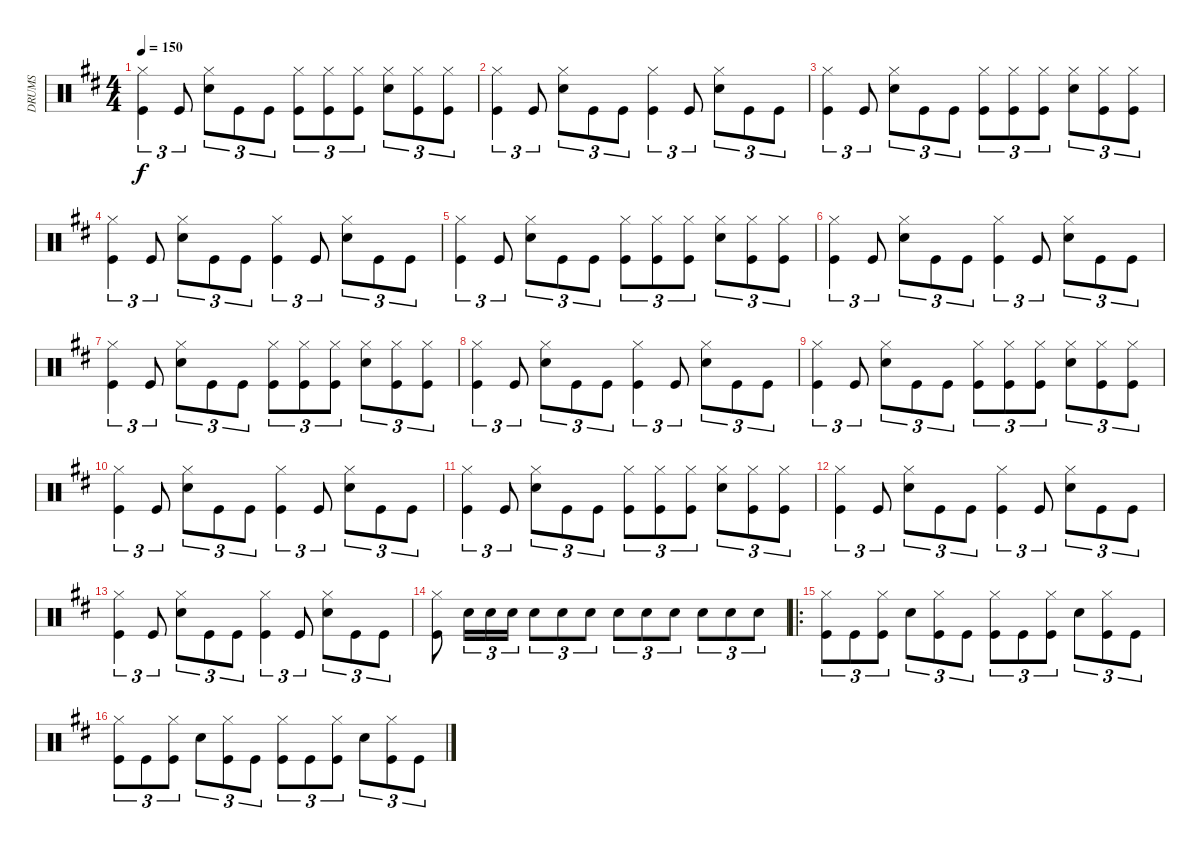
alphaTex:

\track ("DRUMS" "DRUMS") {instrument percussion}
\staff {score}
\articulation defaults
\ts (4 4)
\tempo 150
\clef neutral
\ks d
("Hi-Hat (closed)" "Kick (hit)").4{tu (3 2) dy f} "Kick (hit)".8{tu (3 2)} ("Hi-Hat (closed)" "Snare (hit) 2").8{tu (3 2)} "Kick (hit)".8{tu (3 2)} "Kick (hit)".8{tu (3 2)} ("Hi-Hat (closed)" "Kick (hit)").8{tu (3 2)} ("Hi-Hat (closed)" "Kick (hit)").8{tu (3 2)} ("Hi-Hat (closed)" "Kick (hit)").8{tu (3 2)} ("Hi-Hat (closed)" "Snare (hit) 2").8{tu (3 2)} ("Hi-Hat (closed)" "Kick (hit)").8{tu (3 2)} ("Hi-Hat (closed)" "Kick (hit)").8{tu (3 2)} |
("Hi-Hat (closed)" "Kick (hit)").4{tu (3 2)} "Kick (hit)".8{tu (3 2)} ("Hi-Hat (closed)" "Snare (hit) 2").8{tu (3 2)} "Kick (hit)".8{tu (3 2)} "Kick (hit)".8{tu (3 2)} ("Hi-Hat (closed)" "Kick (hit)").4{tu (3 2)} "Kick (hit)".8{tu (3 2)} ("Hi-Hat (closed)" "Snare (hit) 2").8{tu (3 2)} "Kick (hit)".8{tu (3 2)} "Kick (hit)".8{tu (3 2)} |
("Hi-Hat (closed)" "Kick (hit)").4{tu (3 2)} "Kick (hit)".8{tu (3 2)} ("Hi-Hat (closed)" "Snare (hit) 2").8{tu (3 2)} "Kick (hit)".8{tu (3 2)} "Kick (hit)".8{tu (3 2)} ("Hi-Hat (closed)" "Kick (hit)").8{tu (3 2)} ("Hi-Hat (closed)" "Kick (hit)").8{tu (3 2)} ("Hi-Hat (closed)" "Kick (hit)").8{tu (3 2)} ("Hi-Hat (closed)" "Snare (hit) 2").8{tu (3 2)} ("Hi-Hat (closed)" "Kick (hit)").8{tu (3 2)} ("Hi-Hat (closed)" "Kick (hit)").8{tu (3 2)} |
("Hi-Hat (closed)" "Kick (hit)").4{tu (3 2)} "Kick (hit)".8{tu (3 2)} ("Hi-Hat (closed)" "Snare (hit) 2").8{tu (3 2)} "Kick (hit)".8{tu (3 2)} "Kick (hit)".8{tu (3 2)} ("Hi-Hat (closed)" "Kick (hit)").4{tu (3 2)} "Kick (hit)".8{tu (3 2)} ("Hi-Hat (closed)" "Snare (hit) 2").8{tu (3 2)} "Kick (hit)".8{tu (3 2)} "Kick (hit)".8{tu (3 2)} |
("Hi-Hat (closed)" "Kick (hit)").4{tu (3 2)} "Kick (hit)".8{tu (3 2)} ("Hi-Hat (closed)" "Snare (hit) 2").8{tu (3 2)} "Kick (hit)".8{tu (3 2)} "Kick (hit)".8{tu (3 2)} ("Hi-Hat (closed)" "Kick (hit)").8{tu (3 2)} ("Hi-Hat (closed)" "Kick (hit)").8{tu (3 2)} ("Hi-Hat (closed)" "Kick (hit)").8{tu (3 2)} ("Hi-Hat (closed)" "Snare (hit) 2").8{tu (3 2)} ("Hi-Hat (closed)" "Kick (hit)").8{tu (3 2)} ("Hi-Hat (closed)" "Kick (hit)").8{tu (3 2)} |
("Hi-Hat (closed)" "Kick (hit)").4{tu (3 2)} "Kick (hit)".8{tu (3 2)} ("Hi-Hat (closed)" "Snare (hit) 2").8{tu (3 2)} "Kick (hit)".8{tu (3 2)} "Kick (hit)".8{tu (3 2)} ("Hi-Hat (closed)" "Kick (hit)").4{tu (3 2)} "Kick (hit)".8{tu (3 2)} ("Hi-Hat (closed)" "Snare (hit) 2").8{tu (3 2)} "Kick (hit)".8{tu (3 2)} "Kick (hit)".8{tu (3 2)} |
("Hi-Hat (closed)" "Kick (hit)").4{tu (3 2)} "Kick (hit)".8{tu (3 2)} ("Hi-Hat (closed)" "Snare (hit) 2").8{tu (3 2)} "Kick (hit)".8{tu (3 2)} "Kick (hit)".8{tu (3 2)} ("Hi-Hat (closed)" "Kick (hit)").8{tu (3 2)} ("Hi-Hat (closed)" "Kick (hit)").8{tu (3 2)} ("Hi-Hat (closed)" "Kick (hit)").8{tu (3 2)} ("Hi-Hat (closed)" "Snare (hit) 2").8{tu (3 2)} ("Hi-Hat (closed)" "Kick (hit)").8{tu (3 2)} ("Hi-Hat (closed)" "Kick (hit)").8{tu (3 2)} |
("Hi-Hat (closed)" "Kick (hit)").4{tu (3 2)} "Kick (hit)".8{tu (3 2)} ("Hi-Hat (closed)" "Snare (hit) 2").8{tu (3 2)} "Kick (hit)".8{tu (3 2)} "Kick (hit)".8{tu (3 2)} ("Hi-Hat (closed)" "Kick (hit)").4{tu (3 2)} "Kick (hit)".8{tu (3 2)} ("Hi-Hat (closed)" "Snare (hit) 2").8{tu (3 2)} "Kick (hit)".8{tu (3 2)} "Kick (hit)".8{tu (3 2)} |
("Hi-Hat (closed)" "Kick (hit)").4{tu (3 2)} "Kick (hit)".8{tu (3 2)} ("Hi-Hat (closed)" "Snare (hit) 2").8{tu (3 2)} "Kick (hit)".8{tu (3 2)} "Kick (hit)".8{tu (3 2)} ("Hi-Hat (closed)" "Kick (hit)").8{tu (3 2)} ("Hi-Hat (closed)" "Kick (hit)").8{tu (3 2)} ("Hi-Hat (closed)" "Kick (hit)").8{tu (3 2)} ("Hi-Hat (closed)" "Snare (hit) 2").8{tu (3 2)} ("Hi-Hat (closed)" "Kick (hit)").8{tu (3 2)} ("Hi-Hat (closed)" "Kick (hit)").8{tu (3 2)} |
("Hi-Hat (closed)" "Kick (hit)").4{tu (3 2)} "Kick (hit)".8{tu (3 2)} ("Hi-Hat (closed)" "Snare (hit) 2").8{tu (3 2)} "Kick (hit)".8{tu (3 2)} "Kick (hit)".8{tu (3 2)} ("Hi-Hat (closed)" "Kick (hit)").4{tu (3 2)} "Kick (hit)".8{tu (3 2)} ("Hi-Hat (closed)" "Snare (hit) 2").8{tu (3 2)} "Kick (hit)".8{tu (3 2)} "Kick (hit)".8{tu (3 2)} |
("Hi-Hat (closed)" "Kick (hit)").4{tu (3 2)} "Kick (hit)".8{tu (3 2)} ("Hi-Hat (closed)" "Snare (hit) 2").8{tu (3 2)} "Kick (hit)".8{tu (3 2)} "Kick (hit)".8{tu (3 2)} ("Hi-Hat (closed)" "Kick (hit)").8{tu (3 2)} ("Hi-Hat (closed)" "Kick (hit)").8{tu (3 2)} ("Hi-Hat (closed)" "Kick (hit)").8{tu (3 2)} ("Hi-Hat (closed)" "Snare (hit) 2").8{tu (3 2)} ("Hi-Hat (closed)" "Kick (hit)").8{tu (3 2)} ("Hi-Hat (closed)" "Kick (hit)").8{tu (3 2)} |
("Hi-Hat (closed)" "Kick (hit)").4{tu (3 2)} "Kick (hit)".8{tu (3 2)} ("Hi-Hat (closed)" "Snare (hit) 2").8{tu (3 2)} "Kick (hit)".8{tu (3 2)} "Kick (hit)".8{tu (3 2)} ("Hi-Hat (closed)" "Kick (hit)").4{tu (3 2)} "Kick (hit)".8{tu (3 2)} ("Hi-Hat (closed)" "Snare (hit) 2").8{tu (3 2)} "Kick (hit)".8{tu (3 2)} "Kick (hit)".8{tu (3 2)} |
("Hi-Hat (closed)" "Kick (hit)").4{tu (3 2)} "Kick (hit)".8{tu (3 2)} ("Hi-Hat (closed)" "Snare (hit) 2").8{tu (3 2)} "Kick (hit)".8{tu (3 2)} "Kick (hit)".8{tu (3 2)} ("Hi-Hat (closed)" "Kick (hit)").4{tu (3 2)} "Kick (hit)".8{tu (3 2)} ("Hi-Hat (closed)" "Snare (hit) 2").8{tu (3 2)} "Kick (hit)".8{tu (3 2)} "Kick (hit)".8{tu (3 2)} |
("Hi-Hat (closed)" "Kick (hit)").8 "Snare (hit) 2".16{tu (3 2)} "Snare (hit) 2".16{tu (3 2)} "Snare (hit) 2".16{tu (3 2)} "Snare (hit) 2".8{tu (3 2)} "Snare (hit) 2".8{tu (3 2)} "Snare (hit) 2".8{tu (3 2)} "Snare (hit) 2".8{tu (3 2)} "Snare (hit) 2".8{tu (3 2)} "Snare (hit) 2".8{tu (3 2)} "Snare (hit) 2".8{tu (3 2)} "Snare (hit) 2".8{tu (3 2)} "Snare (hit) 2".8{tu (3 2)} |
\ro
("Hi-Hat (closed)" "Kick (hit)").8{tu (3 2)} "Kick (hit)".8{tu (3 2)} ("Hi-Hat (closed)" "Kick (hit)").8{tu (3 2)} "Snare (hit) 2".8{tu (3 2)} ("Hi-Hat (closed)" "Kick (hit)").8{tu (3 2)} "Kick (hit)".8{tu (3 2)} ("Hi-Hat (closed)" "Kick (hit)").8{tu (3 2)} "Kick (hit)".8{tu (3 2)} ("Hi-Hat (closed)" "Kick (hit)").8{tu (3 2)} "Snare (hit) 2".8{tu (3 2)} ("Hi-Hat (closed)" "Kick (hit)").8{tu (3 2)} "Kick (hit)".8{tu (3 2)} |
("Hi-Hat (closed)" "Kick (hit)").8{tu (3 2)} "Kick (hit)".8{tu (3 2)} ("Hi-Hat (closed)" "Kick (hit)").8{tu (3 2)} "Snare (hit) 2".8{tu (3 2)} ("Hi-Hat (closed)" "Kick (hit)").8{tu (3 2)} "Kick (hit)".8{tu (3 2)} ("Hi-Hat (closed)" "Kick (hit)").8{tu (3 2)} "Kick (hit)".8{tu (3 2)} ("Hi-Hat (closed)" "Kick (hit)").8{tu (3 2)} "Snare (hit) 2".8{tu (3 2)} ("Hi-Hat (closed)" "Kick (hit)").8{tu (3 2)} "Kick (hit)".8{tu (3 2)}
